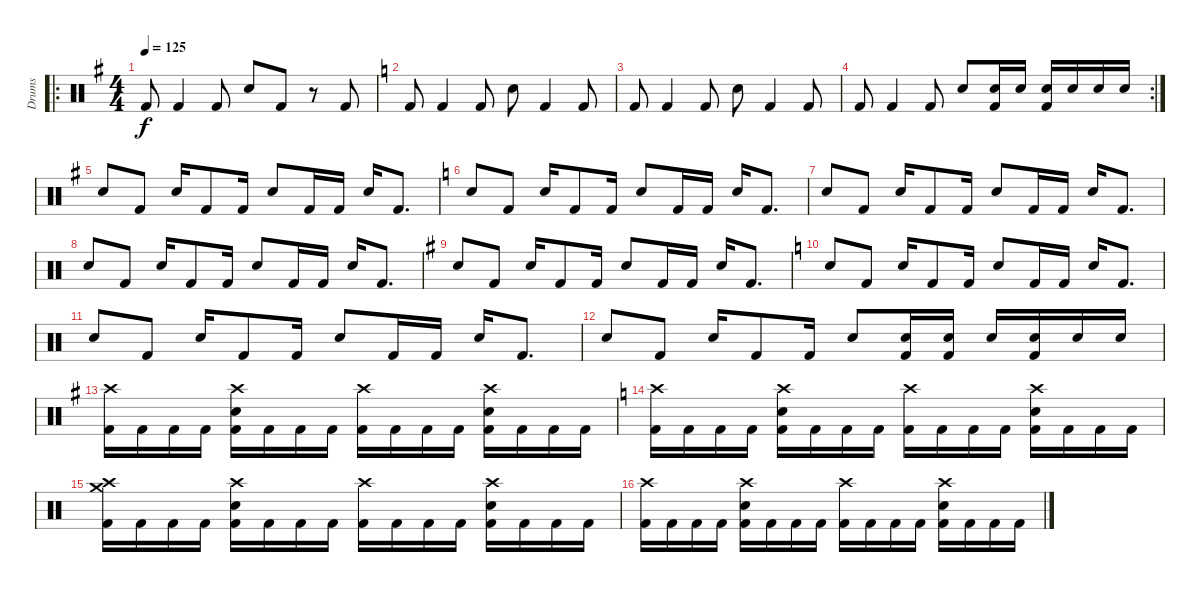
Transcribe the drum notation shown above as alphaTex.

\track ("Drums" "Drums") {instrument percussion}
\staff {score}
\articulation defaults
\ro
\ts (4 4)
\tempo 125
\clef neutral
\ks g "Kick (hit) 2".8{dy f} "Kick (hit) 2".4 "Kick (hit) 2".8 "Snare (hit) 2".8 "Kick (hit) 2".8
r.8 "Kick (hit) 2".8 |
\ks c "Kick (hit) 2".8 "Kick (hit) 2".4 "Kick (hit) 2".8 "Snare (hit) 2".8 "Kick (hit) 2".4 "Kick (hit) 2".8
|
"Kick (hit) 2".8 "Kick (hit) 2".4 "Kick (hit) 2".8 "Snare (hit) 2".8 "Kick (hit) 2".4 "Kick (hit) 2".8 |
\rc 2 "Kick (hit) 2".8 "Kick (hit) 2".4 "Kick (hit) 2".8 "Snare (hit) 2".8
("Snare (hit) 2" "Kick (hit) 2").16 "Snare (hit) 2".16 ("Snare (hit) 2" "Kick (hit) 2").16 "Snare (hit) 2".16 "Snare (hit) 2".16 "Snare (hit) 2".16 |
\ks g "Snare (hit) 2".8 "Kick (hit) 2".8 "Snare (hit) 2".16 "Kick (hit) 2".8 "Kick (hit) 2".16 "Snare (hit) 2".8 "Kick (hit) 2".16 "Kick (hit) 2".16 "Snare (hit) 2".16 "Kick (hit) 2".8{d}
|
\ks c "Snare (hit) 2".8 "Kick (hit) 2".8 "Snare (hit) 2".16 "Kick (hit) 2".8 "Kick (hit) 2".16 "Snare (hit) 2".8 "Kick (hit) 2".16 "Kick (hit) 2".16 "Snare (hit) 2".16 "Kick (hit) 2".8{d}
|
"Snare (hit) 2".8 "Kick (hit) 2".8 "Snare (hit) 2".16 "Kick (hit) 2".8 "Kick (hit) 2".16 "Snare (hit) 2".8 "Kick (hit) 2".16 "Kick (hit) 2".16 "Snare (hit) 2".16 "Kick (hit) 2".8{d} |
"Snare (hit) 2".8 "Kick (hit) 2".8 "Snare (hit) 2".16 "Kick (hit) 2".8 "Kick (hit) 2".16 "Snare (hit) 2".8 "Kick (hit) 2".16 "Kick (hit) 2".16 "Snare (hit) 2".16 "Kick (hit) 2".8{d} |
\ks g "Snare (hit) 2".8 "Kick (hit) 2".8 "Snare (hit) 2".16 "Kick (hit) 2".8 "Kick (hit) 2".16 "Snare (hit) 2".8 "Kick (hit) 2".16 "Kick (hit) 2".16 "Snare (hit) 2".16 "Kick (hit) 2".8{d}
|
\ks c "Snare (hit) 2".8 "Kick (hit) 2".8 "Snare (hit) 2".16 "Kick (hit) 2".8 "Kick (hit) 2".16 "Snare (hit) 2".8 "Kick (hit) 2".16 "Kick (hit) 2".16 "Snare (hit) 2".16 "Kick (hit) 2".8{d}
|
"Snare (hit) 2".8 "Kick (hit) 2".8 "Snare (hit) 2".16 "Kick (hit) 2".8 "Kick (hit) 2".16 "Snare (hit) 2".8 "Kick (hit) 2".16 "Kick (hit) 2".16 "Snare (hit) 2".16 "Kick (hit) 2".8{d} |
"Snare (hit) 2".8 "Kick (hit) 2".8 "Snare (hit) 2".16 "Kick (hit) 2".8 "Kick (hit) 2".16 "Snare (hit) 2".8 ("Snare (hit) 2" "Kick (hit) 2").16 ("Snare (hit) 2" "Kick (hit) 2").16 "Snare (hit) 2".16 ("Snare (hit) 2" "Kick (hit) 2").16 "Snare (hit) 2".16 "Snare (hit) 2".16 |
\ks g
("Crash high (hit)" "Kick (hit) 2").16 "Kick (hit) 2".16 "Kick (hit) 2".16 "Kick (hit) 2".16 ("Crash high (hit)" "Snare (hit) 2" "Kick (hit) 2").16 "Kick (hit) 2".16 "Kick (hit) 2".16 "Kick (hit) 2".16 ("Crash high (hit)" "Kick (hit) 2").16 "Kick (hit) 2".16 "Kick (hit) 2".16 "Kick (hit) 2".16 ("Crash high (hit)" "Snare (hit) 2" "Kick (hit) 2").16 "Kick (hit) 2".16 "Kick (hit) 2".16 "Kick (hit) 2".16 |
\ks c
("Crash high (hit)" "Kick (hit) 2").16 "Kick (hit) 2".16 "Kick (hit) 2".16 "Kick (hit) 2".16 ("Crash high (hit)" "Snare (hit) 2" "Kick (hit) 2").16 "Kick (hit) 2".16 "Kick (hit) 2".16 "Kick (hit) 2".16 ("Crash high (hit)" "Kick (hit) 2").16 "Kick (hit) 2".16 "Kick (hit) 2".16 "Kick (hit) 2".16 ("Crash high (hit)" "Snare (hit) 2" "Kick (hit) 2").16 "Kick (hit) 2".16 "Kick (hit) 2".16 "Kick (hit) 2".16 |
("Crash medium (hit)" "Crash high (hit)" "Kick (hit) 2").16 "Kick (hit) 2".16 "Kick (hit) 2".16 "Kick (hit) 2".16 ("Crash high (hit)" "Snare (hit) 2" "Kick (hit) 2").16 "Kick (hit) 2".16 "Kick (hit) 2".16 "Kick (hit) 2".16 ("Crash high (hit)" "Kick (hit) 2").16 "Kick (hit) 2".16 "Kick (hit) 2".16 "Kick (hit) 2".16 ("Crash high (hit)" "Snare (hit) 2" "Kick (hit) 2").16 "Kick (hit) 2".16 "Kick (hit) 2".16 "Kick (hit) 2".16 |
("Crash high (hit)" "Kick (hit) 2").16 "Kick (hit) 2".16 "Kick (hit) 2".16 "Kick (hit) 2".16 ("Crash high (hit)" "Snare (hit) 2" "Kick (hit) 2").16 "Kick (hit) 2".16 "Kick (hit) 2".16 "Kick (hit) 2".16 ("Crash high (hit)" "Kick (hit) 2").16 "Kick (hit) 2".16 "Kick (hit) 2".16 "Kick (hit) 2".16 ("Crash high (hit)" "Snare (hit) 2" "Kick (hit) 2").16 "Kick (hit) 2".16 "Kick (hit) 2".16 "Kick (hit) 2".16
